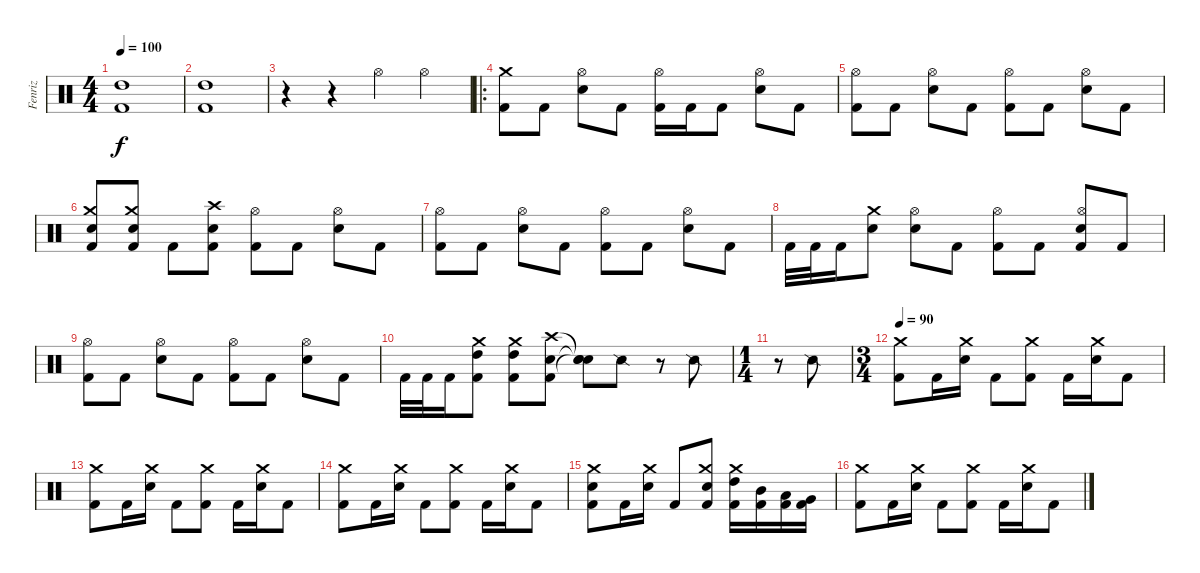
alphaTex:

\track ("Fenriz" "Fenriz") {instrument percussion}
\staff {score}
\articulation defaults
\ts (4 4)
\tempo 100
\clef neutral
\ks c
("High Tom (hit)" "Kick (hit) 2").1{dy f} |
("High Tom (hit)" "Kick (hit) 2").1 |
r.4 r.4 "Hi-Hat (open)".4 "Hi-Hat (open)".4 |
\ro
("Crash medium (hit)" "Kick (hit) 2").8 "Kick (hit) 2".8 ("Hi-Hat (open)" "Electric Snare (hit)").8 "Kick (hit) 2".8 ("Hi-Hat (open)" "Kick (hit) 2").16 "Kick (hit) 2".16 "Kick (hit) 2".8 ("Hi-Hat (open)" "Electric Snare (hit)").8 "Kick (hit) 2".8 |
("Hi-Hat (open)" "Kick (hit) 2").8 "Kick (hit) 2".8 ("Hi-Hat (open)" "Electric Snare (hit)").8 "Kick (hit) 2".8 ("Hi-Hat (open)" "Kick (hit) 2").8 "Kick (hit) 2".8 ("Hi-Hat (open)" "Electric Snare (hit)").8 "Kick (hit) 2".8 |
("Crash medium (hit)" "Electric Snare (hit)" "Kick (hit) 2").8 ("Crash medium (hit)" "Electric Snare (hit)" "Kick (hit) 2").8 "Kick (hit) 2".8 ("Crash high (hit)" "Electric Snare (hit)" "Kick (hit) 2").8 ("Hi-Hat (open)" "Kick (hit) 2").8 "Kick (hit) 2".8 ("Hi-Hat (open)" "Electric Snare (hit)").8 "Kick (hit) 2".8 |
("Hi-Hat (open)" "Kick (hit) 2").8 "Kick (hit) 2".8 ("Hi-Hat (open)" "Electric Snare (hit)").8 "Kick (hit) 2".8 ("Hi-Hat (open)" "Kick (hit) 2").8 "Kick (hit) 2".8 ("Hi-Hat (open)" "Electric Snare (hit)").8 "Kick (hit) 2".8 |
"Kick (hit) 2".32 "Kick (hit) 2".32 "Kick (hit) 2".16 ("Crash medium (hit)" "Electric Snare (hit)").8 ("Hi-Hat (open)" "Electric Snare (hit)").8 "Kick (hit) 2".8 ("Hi-Hat (open)" "Kick (hit) 2").8 "Kick (hit) 2".8 ("Hi-Hat (open)" "Electric Snare (hit)" "Kick (hit) 2").8 "Kick (hit) 2".8 |
("Hi-Hat (open)" "Kick (hit) 2").8 "Kick (hit) 2".8 ("Hi-Hat (open)" "Electric Snare (hit)").8 "Kick (hit) 2".8 ("Hi-Hat (open)" "Kick (hit) 2").8 "Kick (hit) 2".8 ("Hi-Hat (open)" "Electric Snare (hit)").8 "Kick (hit) 2".8 |
"Kick (hit) 2".32 "Kick (hit) 2".32 "Kick (hit) 2".16 ("Crash medium (hit)" "High Tom (hit)" "Kick (hit) 2").8 ("Crash medium (hit)" "High Tom (hit)" "Kick (hit) 2").8 ("Crash high (hit)" "Electric Snare (hit)" "Kick (hit) 2").8 ("Snare (hit)"{t} "Snare (hit)"{t} "Snare (hit)"{t}).8 "Snare (side stick) 2".8 r.8 "Snare (side stick) 2".8 |
\ts (1 4)
r.8 "Snare (side stick) 2".8 |
\ts (3 4)
\tempo 90
("Crash medium (hit)" "Kick (hit) 2").8 "Kick (hit) 2".16 ("Crash medium (hit)" "Electric Snare (hit)").16 "Kick (hit) 2".8 ("Crash medium (hit)" "Kick (hit) 2").8 "Kick (hit) 2".16 ("Crash medium (hit)" "Electric Snare (hit)").16 "Kick (hit) 2".8 |
("Crash medium (hit)" "Kick (hit) 2").8 "Kick (hit) 2".16 ("Crash medium (hit)" "Electric Snare (hit)").16 "Kick (hit) 2".8 ("Crash medium (hit)" "Kick (hit) 2").8 "Kick (hit) 2".16 ("Crash medium (hit)" "Electric Snare (hit)").16 "Kick (hit) 2".8 |
("Crash medium (hit)" "Kick (hit) 2").8 "Kick (hit) 2".16 ("Crash medium (hit)" "Electric Snare (hit)").16 "Kick (hit) 2".8 ("Crash medium (hit)" "Kick (hit) 2").8 "Kick (hit) 2".16 ("Crash medium (hit)" "Electric Snare (hit)").16 "Kick (hit) 2".8 |
("Crash medium (hit)" "Electric Snare (hit)" "Kick (hit) 2").8 "Kick (hit) 2".16 ("Crash medium (hit)" "Electric Snare (hit)").16 "Kick (hit) 2".8 ("Crash medium (hit)" "Electric Snare (hit)" "Kick (hit) 2").8 ("Crash medium (hit)" "High Tom (hit)" "Kick (hit) 2").16 ("Mid Tom (hit)" "Kick (hit) 2").16 ("Low Tom (hit)" "Kick (hit) 2").16 ("Very Low Tom (hit)" "Kick (hit) 2").16 |
("Crash medium (hit)" "Kick (hit) 2").8 "Kick (hit) 2".16 ("Crash medium (hit)" "Electric Snare (hit)").16 "Kick (hit) 2".8 ("Crash medium (hit)" "Kick (hit) 2").8 "Kick (hit) 2".16 ("Crash medium (hit)" "Electric Snare (hit)").16 "Kick (hit) 2".8
